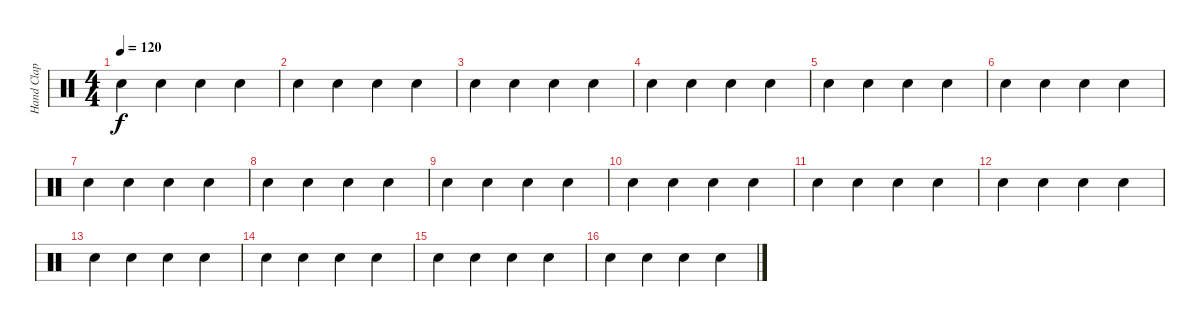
\track ("Hand Clap" "Hand Clap") {instrument percussion}
\staff {score}
\articulation defaults
\ts (4 4)
\tempo 120
\clef neutral
\ks c "Hand Clap (hit)".4{dy f} "Hand Clap (hit)".4 "Hand Clap (hit)".4 "Hand Clap (hit)".4
|
"Hand Clap (hit)".4 "Hand Clap (hit)".4 "Hand Clap (hit)".4 "Hand Clap (hit)".4 |
"Hand Clap (hit)".4 "Hand Clap (hit)".4 "Hand Clap (hit)".4 "Hand Clap (hit)".4 |
"Hand Clap (hit)".4 "Hand Clap (hit)".4 "Hand Clap (hit)".4 "Hand Clap (hit)".4 |
"Hand Clap (hit)".4 "Hand Clap (hit)".4 "Hand Clap (hit)".4 "Hand Clap (hit)".4 |
"Hand Clap (hit)".4 "Hand Clap (hit)".4 "Hand Clap (hit)".4 "Hand Clap (hit)".4 |
"Hand Clap (hit)".4 "Hand Clap (hit)".4 "Hand Clap (hit)".4 "Hand Clap (hit)".4 |
"Hand Clap (hit)".4 "Hand Clap (hit)".4 "Hand Clap (hit)".4 "Hand Clap (hit)".4 |
"Hand Clap (hit)".4 "Hand Clap (hit)".4 "Hand Clap (hit)".4 "Hand Clap (hit)".4 |
"Hand Clap (hit)".4 "Hand Clap (hit)".4 "Hand Clap (hit)".4 "Hand Clap (hit)".4 |
"Hand Clap (hit)".4 "Hand Clap (hit)".4 "Hand Clap (hit)".4 "Hand Clap (hit)".4 |
"Hand Clap (hit)".4 "Hand Clap (hit)".4 "Hand Clap (hit)".4 "Hand Clap (hit)".4 |
"Hand Clap (hit)".4 "Hand Clap (hit)".4 "Hand Clap (hit)".4 "Hand Clap (hit)".4 |
"Hand Clap (hit)".4 "Hand Clap (hit)".4 "Hand Clap (hit)".4 "Hand Clap (hit)".4 |
"Hand Clap (hit)".4 "Hand Clap (hit)".4 "Hand Clap (hit)".4 "Hand Clap (hit)".4 |
"Hand Clap (hit)".4 "Hand Clap (hit)".4 "Hand Clap (hit)".4 "Hand Clap (hit)".4
